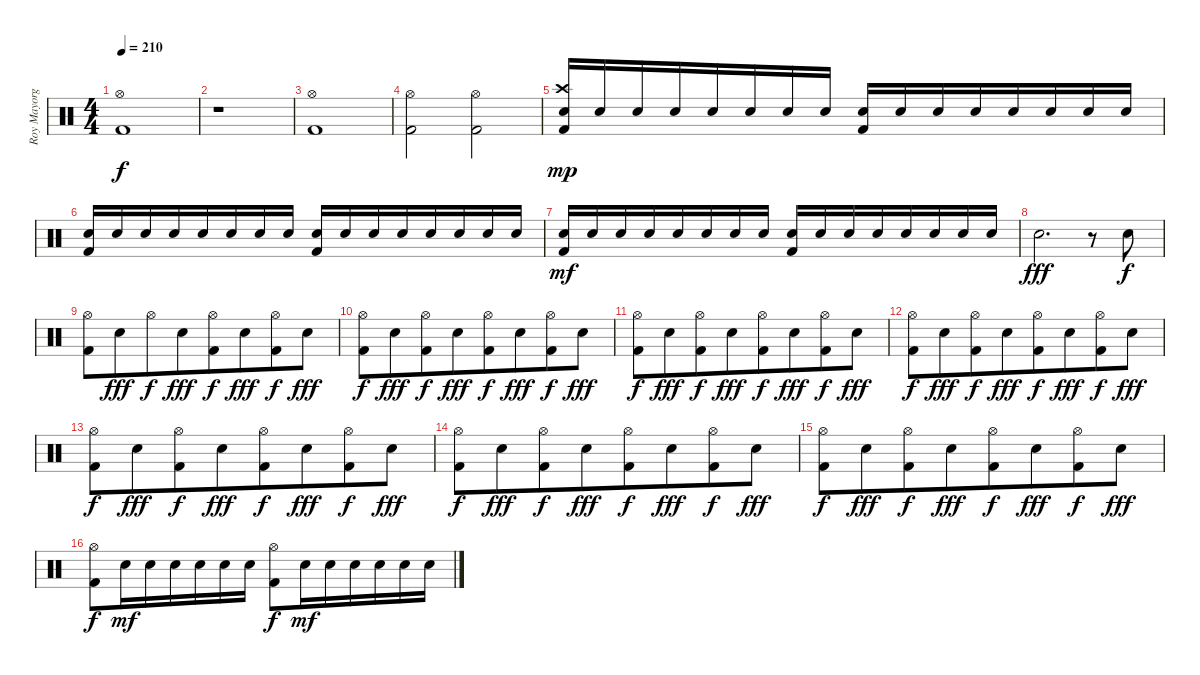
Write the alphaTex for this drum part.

\track ("Roy Mayorga" "Roy Mayorg") {instrument percussion}
\staff {score}
\articulation defaults
\ts (4 4)
\tempo 210
\clef neutral
\ks c
("Hi-Hat (open)" "Kick (hit) 2").1{dy f} |
r.1 |
("Hi-Hat (open)" "Kick (hit) 2").1 |
("Hi-Hat (open)" "Kick (hit) 2").2 ("Hi-Hat (open)" "Kick (hit) 2").2 |
("Crash high (hit)" "Electric Snare (hit)" "Kick (hit) 2").16{dy mp} "Electric Snare (hit)".16 "Electric Snare (hit)".16 "Electric Snare (hit)".16{beam merge} "Electric Snare (hit)".16 "Electric Snare (hit)".16 "Electric Snare (hit)".16 "Electric Snare (hit)".16 ("Electric Snare (hit)" "Kick (hit) 2").16 "Electric Snare (hit)".16 "Electric Snare (hit)".16 "Electric Snare (hit)".16{beam merge} "Electric Snare (hit)".16 "Electric Snare (hit)".16 "Electric Snare (hit)".16 "Electric Snare (hit)".16 |
("Electric Snare (hit)" "Kick (hit) 2").16 "Electric Snare (hit)".16 "Electric Snare (hit)".16 "Electric Snare (hit)".16{beam merge} "Electric Snare (hit)".16 "Electric Snare (hit)".16 "Electric Snare (hit)".16 "Electric Snare (hit)".16{beam split} ("Electric Snare (hit)" "Kick (hit) 2").16 "Electric Snare (hit)".16 "Electric Snare (hit)".16 "Electric Snare (hit)".16{beam merge} "Electric Snare (hit)".16 "Electric Snare (hit)".16 "Electric Snare (hit)".16 "Electric Snare (hit)".16 |
("Electric Snare (hit)" "Kick (hit) 2").16{dy mf} "Electric Snare (hit)".16 "Electric Snare (hit)".16 "Electric Snare (hit)".16{beam merge} "Electric Snare (hit)".16 "Electric Snare (hit)".16 "Electric Snare (hit)".16 "Electric Snare (hit)".16{beam split} ("Electric Snare (hit)" "Kick (hit) 2").16 "Electric Snare (hit)".16 "Electric Snare (hit)".16 "Electric Snare (hit)".16{beam merge} "Electric Snare (hit)".16 "Electric Snare (hit)".16 "Electric Snare (hit)".16 "Electric Snare (hit)".16 |
"Electric Snare (hit)".2{d dy fff} r.8 "Electric Snare (hit)".8{dy f} |
("Hi-Hat (open)" "Kick (hit) 2").8 "Electric Snare (hit)".8{dy fff beam merge} "Hi-Hat (open)".8{dy f} "Electric Snare (hit)".8{dy fff beam merge} ("Hi-Hat (open)" "Kick (hit) 2").8{dy f} "Electric Snare (hit)".8{dy fff beam merge} ("Hi-Hat (open)" "Kick (hit) 2").8{dy f} "Electric Snare (hit)".8{dy fff} |
("Hi-Hat (open)" "Kick (hit) 2").8{dy f} "Electric Snare (hit)".8{dy fff beam merge} ("Hi-Hat (open)" "Kick (hit) 2").8{dy f} "Electric Snare (hit)".8{dy fff beam merge} ("Hi-Hat (open)" "Kick (hit) 2").8{dy f} "Electric Snare (hit)".8{dy fff beam merge} ("Hi-Hat (open)" "Kick (hit) 2").8{dy f} "Electric Snare (hit)".8{dy fff} |
("Hi-Hat (open)" "Kick (hit) 2").8{dy f} "Electric Snare (hit)".8{dy fff beam merge} ("Hi-Hat (open)" "Kick (hit) 2").8{dy f} "Electric Snare (hit)".8{dy fff beam merge} ("Hi-Hat (open)" "Kick (hit) 2").8{dy f} "Electric Snare (hit)".8{dy fff beam merge} ("Hi-Hat (open)" "Kick (hit) 2").8{dy f} "Electric Snare (hit)".8{dy fff} |
("Hi-Hat (open)" "Kick (hit) 2").8{dy f} "Electric Snare (hit)".8{dy fff beam merge} ("Hi-Hat (open)" "Kick (hit) 2").8{dy f} "Electric Snare (hit)".8{dy fff beam merge} ("Hi-Hat (open)" "Kick (hit) 2").8{dy f} "Electric Snare (hit)".8{dy fff beam merge} ("Hi-Hat (open)" "Kick (hit) 2").8{dy f} "Electric Snare (hit)".8{dy fff} |
("Hi-Hat (open)" "Kick (hit) 2").8{dy f} "Electric Snare (hit)".8{dy fff beam merge} ("Hi-Hat (open)" "Kick (hit) 2").8{dy f} "Electric Snare (hit)".8{dy fff beam merge} ("Hi-Hat (open)" "Kick (hit) 2").8{dy f} "Electric Snare (hit)".8{dy fff beam merge} ("Hi-Hat (open)" "Kick (hit) 2").8{dy f} "Electric Snare (hit)".8{dy fff} |
("Hi-Hat (open)" "Kick (hit) 2").8{dy f} "Electric Snare (hit)".8{dy fff beam merge} ("Hi-Hat (open)" "Kick (hit) 2").8{dy f} "Electric Snare (hit)".8{dy fff beam merge} ("Hi-Hat (open)" "Kick (hit) 2").8{dy f} "Electric Snare (hit)".8{dy fff beam merge} ("Hi-Hat (open)" "Kick (hit) 2").8{dy f} "Electric Snare (hit)".8{dy fff} |
("Hi-Hat (open)" "Kick (hit) 2").8{dy f} "Electric Snare (hit)".8{dy fff beam merge} ("Hi-Hat (open)" "Kick (hit) 2").8{dy f} "Electric Snare (hit)".8{dy fff beam merge} ("Hi-Hat (open)" "Kick (hit) 2").8{dy f} "Electric Snare (hit)".8{dy fff beam merge} ("Hi-Hat (open)" "Kick (hit) 2").8{dy f} "Electric Snare (hit)".8{dy fff} |
("Hi-Hat (open)" "Kick (hit) 2").8{dy f} "Electric Snare (hit)".16{dy mf} "Electric Snare (hit)".16{beam merge} "Electric Snare (hit)".16 "Electric Snare (hit)".16 "Electric Snare (hit)".16 "Electric Snare (hit)".16 ("Hi-Hat (open)" "Kick (hit) 2").8{dy f} "Electric Snare (hit)".16{dy mf} "Electric Snare (hit)".16{beam merge} "Electric Snare (hit)".16 "Electric Snare (hit)".16 "Electric Snare (hit)".16 "Electric Snare (hit)".16
